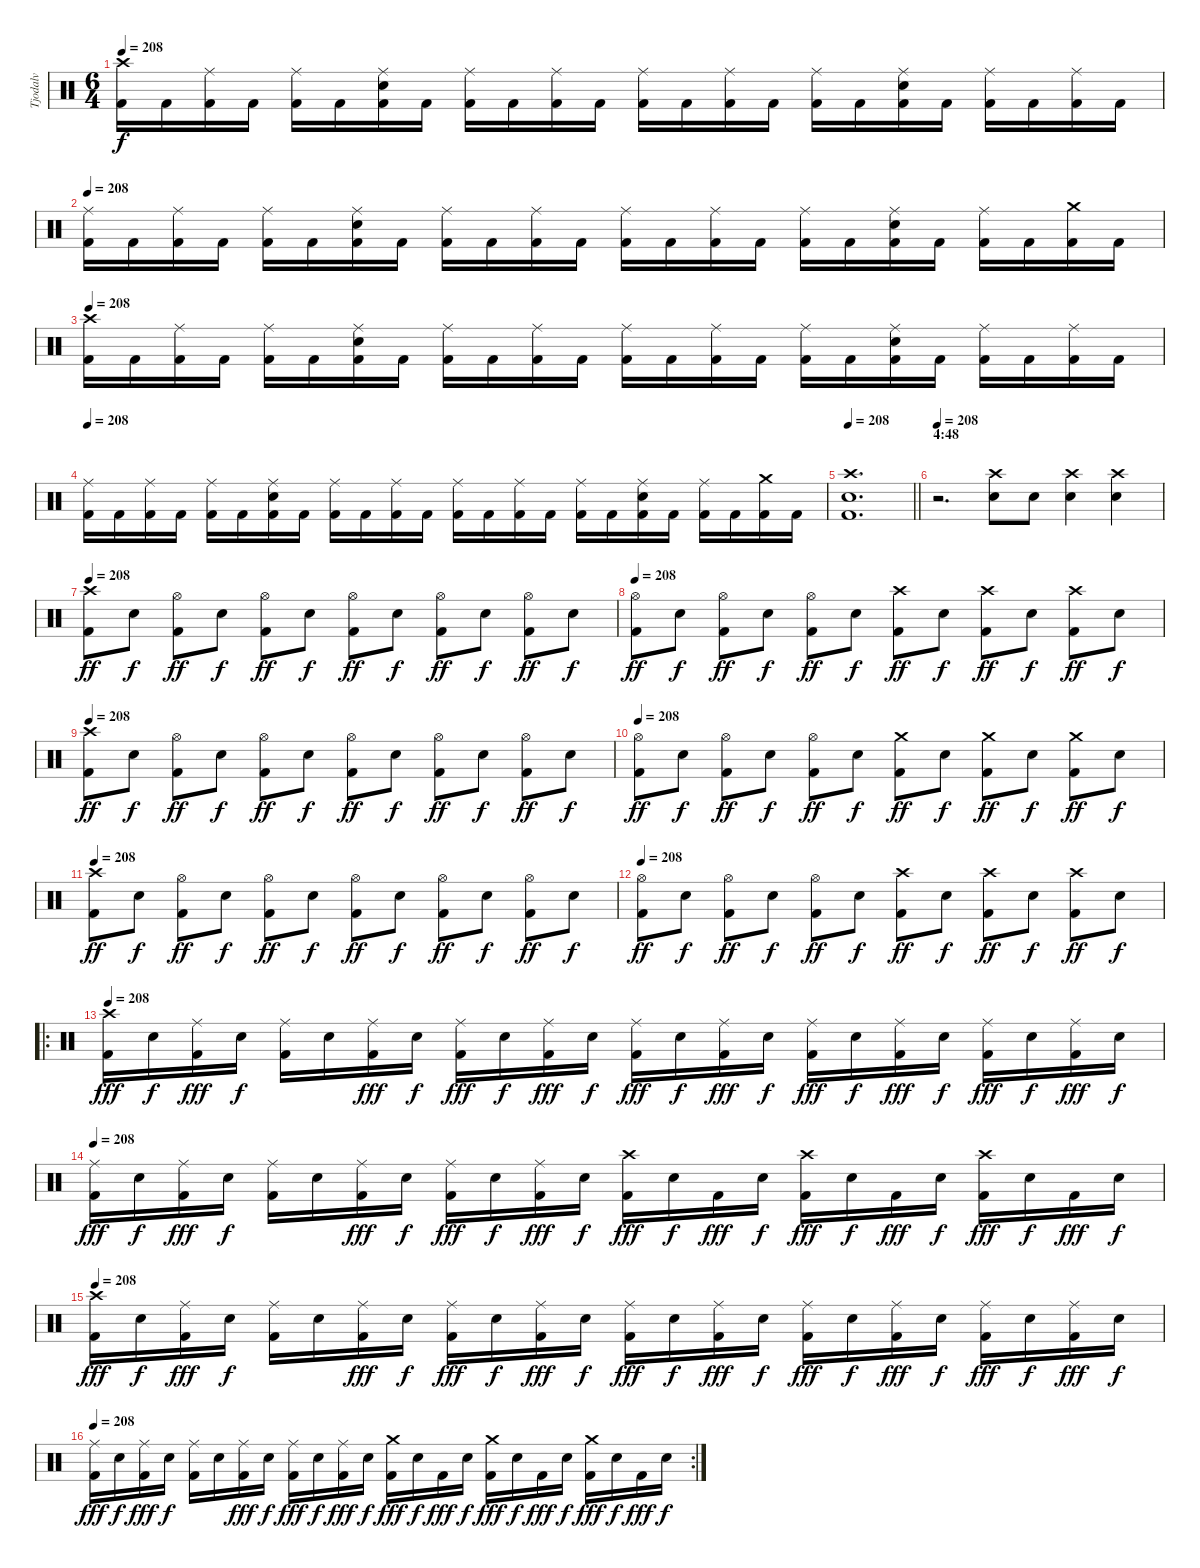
\track ("Tjodalv" "Tjodalv") {instrument percussion}
\staff {score}
\articulation defaults
\ts (6 4)
\tempo 208
\clef neutral
\ks c
("Kick (hit) 2" "Crash high (hit)").16{dy f} "Kick (hit) 2".16 ("Kick (hit) 2" "Ride (middle)").16 "Kick (hit) 2".16 ("Kick (hit) 2" "Ride (middle)").16 "Kick (hit) 2".16 ("Kick (hit) 2" "Snare (hit) 2" "Ride (middle)").16 "Kick (hit) 2".16 ("Kick (hit) 2" "Ride (middle)").16 "Kick (hit) 2".16 ("Kick (hit) 2" "Ride (middle)").16 "Kick (hit) 2".16 ("Kick (hit) 2" "Ride (middle)").16 "Kick (hit) 2".16 ("Kick (hit) 2" "Ride (middle)").16 "Kick (hit) 2".16 ("Kick (hit) 2" "Ride (middle)").16 "Kick (hit) 2".16 ("Kick (hit) 2" "Snare (hit) 2" "Ride (middle)").16 "Kick (hit) 2".16 ("Kick (hit) 2" "Ride (middle)").16 "Kick (hit) 2".16 ("Kick (hit) 2" "Ride (middle)").16 "Kick (hit) 2".16 |
\tempo 208
("Kick (hit) 2" "Ride (middle)").16 "Kick (hit) 2".16 ("Kick (hit) 2" "Ride (middle)").16 "Kick (hit) 2".16 ("Kick (hit) 2" "Ride (middle)").16 "Kick (hit) 2".16 ("Kick (hit) 2" "Snare (hit) 2" "Ride (middle)").16 "Kick (hit) 2".16 ("Kick (hit) 2" "Ride (middle)").16 "Kick (hit) 2".16 ("Kick (hit) 2" "Ride (middle)").16 "Kick (hit) 2".16 ("Kick (hit) 2" "Ride (middle)").16 "Kick (hit) 2".16 ("Kick (hit) 2" "Ride (middle)").16 "Kick (hit) 2".16 ("Kick (hit) 2" "Ride (middle)").16 "Kick (hit) 2".16 ("Kick (hit) 2" "Snare (hit) 2" "Ride (middle)").16 "Kick (hit) 2".16 ("Kick (hit) 2" "Ride (middle)").16 "Kick (hit) 2".16 ("Kick (hit) 2" "Crash medium (hit)").16 "Kick (hit) 2".16 |
\tempo 208
("Kick (hit) 2" "Crash high (hit)").16 "Kick (hit) 2".16 ("Kick (hit) 2" "Ride (middle)").16 "Kick (hit) 2".16 ("Kick (hit) 2" "Ride (middle)").16 "Kick (hit) 2".16 ("Kick (hit) 2" "Snare (hit) 2" "Ride (middle)").16 "Kick (hit) 2".16 ("Kick (hit) 2" "Ride (middle)").16 "Kick (hit) 2".16 ("Kick (hit) 2" "Ride (middle)").16 "Kick (hit) 2".16 ("Kick (hit) 2" "Ride (middle)").16 "Kick (hit) 2".16 ("Kick (hit) 2" "Ride (middle)").16 "Kick (hit) 2".16 ("Kick (hit) 2" "Ride (middle)").16 "Kick (hit) 2".16 ("Kick (hit) 2" "Snare (hit) 2" "Ride (middle)").16 "Kick (hit) 2".16 ("Kick (hit) 2" "Ride (middle)").16 "Kick (hit) 2".16 ("Kick (hit) 2" "Ride (middle)").16 "Kick (hit) 2".16 |
\tempo 208
("Kick (hit) 2" "Ride (middle)").16 "Kick (hit) 2".16 ("Kick (hit) 2" "Ride (middle)").16 "Kick (hit) 2".16 ("Kick (hit) 2" "Ride (middle)").16 "Kick (hit) 2".16 ("Kick (hit) 2" "Snare (hit) 2" "Ride (middle)").16 "Kick (hit) 2".16 ("Kick (hit) 2" "Ride (middle)").16 "Kick (hit) 2".16 ("Kick (hit) 2" "Ride (middle)").16 "Kick (hit) 2".16 ("Kick (hit) 2" "Ride (middle)").16 "Kick (hit) 2".16 ("Kick (hit) 2" "Ride (middle)").16 "Kick (hit) 2".16 ("Kick (hit) 2" "Ride (middle)").16 "Kick (hit) 2".16 ("Kick (hit) 2" "Snare (hit) 2" "Ride (middle)").16 "Kick (hit) 2".16 ("Kick (hit) 2" "Ride (middle)").16 "Kick (hit) 2".16 ("Kick (hit) 2" "Crash medium (hit)").16 "Kick (hit) 2".16 |
\tempo 210
\tempo 208
\barLineRight lightlight
("Kick (hit) 2" "Snare (hit) 2" "Crash high (hit)").1{d} |
\section ("" "4:48")
\tempo 208
r.2{d} ("Snare (hit) 2" "Crash high (hit)").8 "Snare (hit) 2".8 ("Snare (hit) 2" "Crash high (hit)").4 ("Snare (hit) 2" "Crash high (hit)").4 |
\tempo 208
("Kick (hit) 2" "Crash high (hit)").8{dy ff} "Snare (hit) 2".8{dy f} ("Kick (hit) 2" "Hi-Hat (open)").8{dy ff} "Snare (hit) 2".8{dy f} ("Kick (hit) 2" "Hi-Hat (open)").8{dy ff} "Snare (hit) 2".8{dy f} ("Kick (hit) 2" "Hi-Hat (open)").8{dy ff} "Snare (hit) 2".8{dy f} ("Kick (hit) 2" "Hi-Hat (open)").8{dy ff} "Snare (hit) 2".8{dy f} ("Kick (hit) 2" "Hi-Hat (open)").8{dy ff} "Snare (hit) 2".8{dy f} |
\tempo 208
("Kick (hit) 2" "Hi-Hat (open)").8{dy ff} "Snare (hit) 2".8{dy f} ("Kick (hit) 2" "Hi-Hat (open)").8{dy ff} "Snare (hit) 2".8{dy f} ("Kick (hit) 2" "Hi-Hat (open)").8{dy ff} "Snare (hit) 2".8{dy f} ("Kick (hit) 2" "Crash high (hit)").8{dy ff} "Snare (hit) 2".8{dy f} ("Kick (hit) 2" "Crash high (hit)").8{dy ff} "Snare (hit) 2".8{dy f} ("Kick (hit) 2" "Crash high (hit)").8{dy ff} "Snare (hit) 2".8{dy f} |
\tempo 208
("Kick (hit) 2" "Crash high (hit)").8{dy ff} "Snare (hit) 2".8{dy f} ("Kick (hit) 2" "Hi-Hat (open)").8{dy ff} "Snare (hit) 2".8{dy f} ("Kick (hit) 2" "Hi-Hat (open)").8{dy ff} "Snare (hit) 2".8{dy f} ("Kick (hit) 2" "Hi-Hat (open)").8{dy ff} "Snare (hit) 2".8{dy f} ("Kick (hit) 2" "Hi-Hat (open)").8{dy ff} "Snare (hit) 2".8{dy f} ("Kick (hit) 2" "Hi-Hat (open)").8{dy ff} "Snare (hit) 2".8{dy f} |
\tempo 208
("Kick (hit) 2" "Hi-Hat (open)").8{dy ff} "Snare (hit) 2".8{dy f} ("Kick (hit) 2" "Hi-Hat (open)").8{dy ff} "Snare (hit) 2".8{dy f} ("Kick (hit) 2" "Hi-Hat (open)").8{dy ff} "Snare (hit) 2".8{dy f} ("Kick (hit) 2" "Crash medium (hit)").8{dy ff} "Snare (hit) 2".8{dy f} ("Kick (hit) 2" "Crash medium (hit)").8{dy ff} "Snare (hit) 2".8{dy f} ("Kick (hit) 2" "Crash medium (hit)").8{dy ff} "Snare (hit) 2".8{dy f} |
\tempo 208
("Kick (hit) 2" "Crash high (hit)").8{dy ff} "Snare (hit) 2".8{dy f} ("Kick (hit) 2" "Hi-Hat (open)").8{dy ff} "Snare (hit) 2".8{dy f} ("Kick (hit) 2" "Hi-Hat (open)").8{dy ff} "Snare (hit) 2".8{dy f} ("Kick (hit) 2" "Hi-Hat (open)").8{dy ff} "Snare (hit) 2".8{dy f} ("Kick (hit) 2" "Hi-Hat (open)").8{dy ff} "Snare (hit) 2".8{dy f} ("Kick (hit) 2" "Hi-Hat (open)").8{dy ff} "Snare (hit) 2".8{dy f} |
\tempo 208
("Kick (hit) 2" "Hi-Hat (open)").8{dy ff} "Snare (hit) 2".8{dy f} ("Kick (hit) 2" "Hi-Hat (open)").8{dy ff} "Snare (hit) 2".8{dy f} ("Kick (hit) 2" "Hi-Hat (open)").8{dy ff} "Snare (hit) 2".8{dy f} ("Kick (hit) 2" "Crash high (hit)").8{dy ff} "Snare (hit) 2".8{dy f} ("Kick (hit) 2" "Crash high (hit)").8{dy ff} "Snare (hit) 2".8{dy f} ("Kick (hit) 2" "Crash high (hit)").8{dy ff} "Snare (hit) 2".8{dy f} |
\ro
\tempo 208
("Kick (hit) 2" "Crash high (hit)").16{dy fff} "Snare (hit) 2".16{dy f} ("Kick (hit) 2" "Ride (middle)").16{dy fff} "Snare (hit) 2".16{dy f} ("Kick (hit) 2" "Ride (middle)").16 "Snare (hit) 2".16 ("Kick (hit) 2" "Ride (middle)").16{dy fff} "Snare (hit) 2".16{dy f} ("Kick (hit) 2" "Ride (middle)").16{dy fff} "Snare (hit) 2".16{dy f} ("Kick (hit) 2" "Ride (middle)").16{dy fff} "Snare (hit) 2".16{dy f} ("Kick (hit) 2" "Ride (middle)").16{dy fff} "Snare (hit) 2".16{dy f} ("Kick (hit) 2" "Ride (middle)").16{dy fff} "Snare (hit) 2".16{dy f} ("Kick (hit) 2" "Ride (middle)").16{dy fff} "Snare (hit) 2".16{dy f} ("Kick (hit) 2" "Ride (middle)").16{dy fff} "Snare (hit) 2".16{dy f} ("Kick (hit) 2" "Ride (middle)").16{dy fff} "Snare (hit) 2".16{dy f} ("Kick (hit) 2" "Ride (middle)").16{dy fff} "Snare (hit) 2".16{dy f} |
\tempo 208
("Kick (hit) 2" "Ride (middle)").16{dy fff} "Snare (hit) 2".16{dy f} ("Kick (hit) 2" "Ride (middle)").16{dy fff} "Snare (hit) 2".16{dy f} ("Kick (hit) 2" "Ride (middle)").16 "Snare (hit) 2".16 ("Kick (hit) 2" "Ride (middle)").16{dy fff} "Snare (hit) 2".16{dy f} ("Kick (hit) 2" "Ride (middle)").16{dy fff} "Snare (hit) 2".16{dy f} ("Kick (hit) 2" "Ride (middle)").16{dy fff} "Snare (hit) 2".16{dy f} ("Kick (hit) 2" "Crash high (hit)").16{dy fff} "Snare (hit) 2".16{dy f} "Kick (hit) 2".16{dy fff} "Snare (hit) 2".16{dy f} ("Kick (hit) 2" "Crash high (hit)").16{dy fff} "Snare (hit) 2".16{dy f} "Kick (hit) 2".16{dy fff} "Snare (hit) 2".16{dy f} ("Kick (hit) 2" "Crash high (hit)").16{dy fff} "Snare (hit) 2".16{dy f} "Kick (hit) 2".16{dy fff} "Snare (hit) 2".16{dy f} |
\tempo 208
("Kick (hit) 2" "Crash high (hit)").16{dy fff} "Snare (hit) 2".16{dy f} ("Kick (hit) 2" "Ride (middle)").16{dy fff} "Snare (hit) 2".16{dy f} ("Kick (hit) 2" "Ride (middle)").16 "Snare (hit) 2".16 ("Kick (hit) 2" "Ride (middle)").16{dy fff} "Snare (hit) 2".16{dy f} ("Kick (hit) 2" "Ride (middle)").16{dy fff} "Snare (hit) 2".16{dy f} ("Kick (hit) 2" "Ride (middle)").16{dy fff} "Snare (hit) 2".16{dy f} ("Kick (hit) 2" "Ride (middle)").16{dy fff} "Snare (hit) 2".16{dy f} ("Kick (hit) 2" "Ride (middle)").16{dy fff} "Snare (hit) 2".16{dy f} ("Kick (hit) 2" "Ride (middle)").16{dy fff} "Snare (hit) 2".16{dy f} ("Kick (hit) 2" "Ride (middle)").16{dy fff} "Snare (hit) 2".16{dy f} ("Kick (hit) 2" "Ride (middle)").16{dy fff} "Snare (hit) 2".16{dy f} ("Kick (hit) 2" "Ride (middle)").16{dy fff} "Snare (hit) 2".16{dy f} |
\rc 2
\tempo 208
("Kick (hit) 2" "Ride (middle)").16{dy fff} "Snare (hit) 2".16{dy f} ("Kick (hit) 2" "Ride (middle)").16{dy fff} "Snare (hit) 2".16{dy f} ("Kick (hit) 2" "Ride (middle)").16 "Snare (hit) 2".16 ("Kick (hit) 2" "Ride (middle)").16{dy fff} "Snare (hit) 2".16{dy f} ("Kick (hit) 2" "Ride (middle)").16{dy fff} "Snare (hit) 2".16{dy f} ("Kick (hit) 2" "Ride (middle)").16{dy fff} "Snare (hit) 2".16{dy f} ("Kick (hit) 2" "Crash medium (hit)").16{dy fff} "Snare (hit) 2".16{dy f} "Kick (hit) 2".16{dy fff} "Snare (hit) 2".16{dy f} ("Kick (hit) 2" "Crash medium (hit)").16{dy fff} "Snare (hit) 2".16{dy f} "Kick (hit) 2".16{dy fff} "Snare (hit) 2".16{dy f} ("Kick (hit) 2" "Crash medium (hit)").16{dy fff} "Snare (hit) 2".16{dy f} "Kick (hit) 2".16{dy fff} "Snare (hit) 2".16{dy f}
